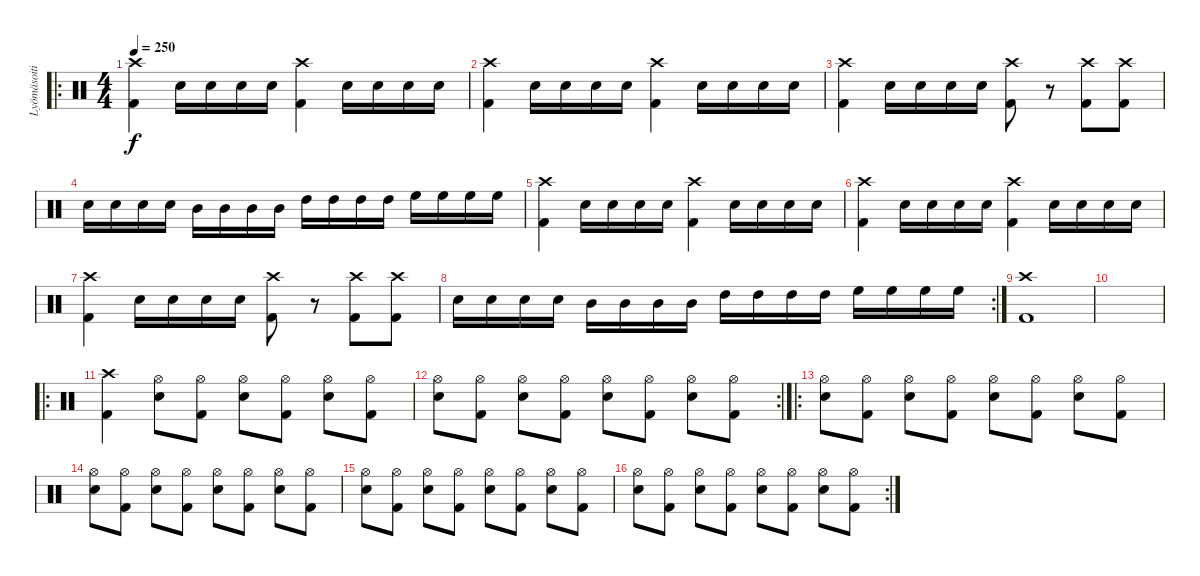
\track ("Lyömäsoitin" "Lyömäsoiti") {instrument percussion}
\staff {score}
\articulation defaults
\ro
\ts (4 4)
\tempo 250
\clef neutral
\ks c
("Crash high (hit)" "Kick (hit) 2").4{dy f} "Electric Snare (hit)".16 "Electric Snare (hit)".16 "Electric Snare (hit)".16 "Electric Snare (hit)".16 ("Crash high (hit)" "Kick (hit) 2").4 "Electric Snare (hit)".16 "Electric Snare (hit)".16 "Electric Snare (hit)".16 "Electric Snare (hit)".16 |
("Crash high (hit)" "Kick (hit) 2").4 "Electric Snare (hit)".16 "Electric Snare (hit)".16 "Electric Snare (hit)".16 "Electric Snare (hit)".16 ("Crash high (hit)" "Kick (hit) 2").4 "Electric Snare (hit)".16 "Electric Snare (hit)".16 "Electric Snare (hit)".16 "Electric Snare (hit)".16 |
("Crash high (hit)" "Kick (hit) 2").4 "Electric Snare (hit)".16 "Electric Snare (hit)".16 "Electric Snare (hit)".16 "Electric Snare (hit)".16 ("Crash high (hit)" "Kick (hit) 2").8 r.8 ("Crash high (hit)" "Kick (hit) 2").8 ("Crash high (hit)" "Kick (hit) 2").8 |
"Electric Snare (hit)".16 "Electric Snare (hit)".16 "Electric Snare (hit)".16 "Electric Snare (hit)".16 "Mid Tom (hit)".16 "Mid Tom (hit)".16 "Mid Tom (hit)".16 "Mid Tom (hit)".16 "High Tom (hit)".16 "High Tom (hit)".16 "High Tom (hit)".16 "High Tom (hit)".16 "High Floor Tom (hit)".16 "High Floor Tom (hit)".16 "High Floor Tom (hit)".16 "High Floor Tom (hit)".16 |
("Crash high (hit)" "Kick (hit) 2").4 "Electric Snare (hit)".16 "Electric Snare (hit)".16 "Electric Snare (hit)".16 "Electric Snare (hit)".16 ("Crash high (hit)" "Kick (hit) 2").4 "Electric Snare (hit)".16 "Electric Snare (hit)".16 "Electric Snare (hit)".16 "Electric Snare (hit)".16 |
("Crash high (hit)" "Kick (hit) 2").4 "Electric Snare (hit)".16 "Electric Snare (hit)".16 "Electric Snare (hit)".16 "Electric Snare (hit)".16 ("Crash high (hit)" "Kick (hit) 2").4 "Electric Snare (hit)".16 "Electric Snare (hit)".16 "Electric Snare (hit)".16 "Electric Snare (hit)".16 |
("Crash high (hit)" "Kick (hit) 2").4 "Electric Snare (hit)".16 "Electric Snare (hit)".16 "Electric Snare (hit)".16 "Electric Snare (hit)".16 ("Crash high (hit)" "Kick (hit) 2").8 r.8 ("Crash high (hit)" "Kick (hit) 2").8 ("Crash high (hit)" "Kick (hit) 2").8 |
\rc 2 "Electric Snare (hit)".16 "Electric Snare (hit)".16 "Electric Snare (hit)".16 "Electric Snare (hit)".16 "Mid Tom (hit)".16 "Mid Tom (hit)".16 "Mid Tom (hit)".16 "Mid Tom (hit)".16 "High Tom (hit)".16 "High Tom (hit)".16 "High Tom (hit)".16 "High Tom (hit)".16 "High Floor Tom (hit)".16 "High Floor Tom (hit)".16 "High Floor Tom (hit)".16 "High Floor Tom (hit)".16
|
("Crash high (hit)" "Kick (hit) 2").1 |
|
\ro
("Crash high (hit)" "Kick (hit) 2").4 ("Hi-Hat (open)" "Electric Snare (hit)").8 ("Hi-Hat (open)" "Kick (hit) 2").8 ("Hi-Hat (open)" "Electric Snare (hit)").8 ("Hi-Hat (open)" "Kick (hit) 2").8 ("Hi-Hat (open)" "Electric Snare (hit)").8 ("Hi-Hat (open)" "Kick (hit) 2").8 |
\rc 2
("Hi-Hat (open)" "Electric Snare (hit)").8 ("Hi-Hat (open)" "Kick (hit) 2").8 ("Hi-Hat (open)" "Electric Snare (hit)").8 ("Hi-Hat (open)" "Kick (hit) 2").8 ("Hi-Hat (open)" "Electric Snare (hit)").8 ("Hi-Hat (open)" "Kick (hit) 2").8 ("Hi-Hat (open)" "Electric Snare (hit)").8 ("Hi-Hat (open)" "Kick (hit) 2").8 |
\ro
("Hi-Hat (open)" "Electric Snare (hit)").8 ("Hi-Hat (open)" "Kick (hit) 2").8 ("Hi-Hat (open)" "Electric Snare (hit)").8 ("Hi-Hat (open)" "Kick (hit) 2").8 ("Hi-Hat (open)" "Electric Snare (hit)").8 ("Hi-Hat (open)" "Kick (hit) 2").8 ("Hi-Hat (open)" "Electric Snare (hit)").8 ("Hi-Hat (open)" "Kick (hit) 2").8 |
("Hi-Hat (open)" "Electric Snare (hit)").8 ("Hi-Hat (open)" "Kick (hit) 2").8 ("Hi-Hat (open)" "Electric Snare (hit)").8 ("Hi-Hat (open)" "Kick (hit) 2").8 ("Hi-Hat (open)" "Electric Snare (hit)").8 ("Hi-Hat (open)" "Kick (hit) 2").8 ("Hi-Hat (open)" "Electric Snare (hit)").8 ("Hi-Hat (open)" "Kick (hit) 2").8 |
("Hi-Hat (open)" "Electric Snare (hit)").8 ("Hi-Hat (open)" "Kick (hit) 2").8 ("Hi-Hat (open)" "Electric Snare (hit)").8 ("Hi-Hat (open)" "Kick (hit) 2").8 ("Hi-Hat (open)" "Electric Snare (hit)").8 ("Hi-Hat (open)" "Kick (hit) 2").8 ("Hi-Hat (open)" "Electric Snare (hit)").8 ("Hi-Hat (open)" "Kick (hit) 2").8 |
\rc 2
("Hi-Hat (open)" "Electric Snare (hit)").8 ("Hi-Hat (open)" "Kick (hit) 2").8 ("Hi-Hat (open)" "Electric Snare (hit)").8 ("Hi-Hat (open)" "Kick (hit) 2").8 ("Hi-Hat (open)" "Electric Snare (hit)").8 ("Hi-Hat (open)" "Kick (hit) 2").8 ("Hi-Hat (open)" "Electric Snare (hit)").8 ("Hi-Hat (open)" "Kick (hit) 2").8
